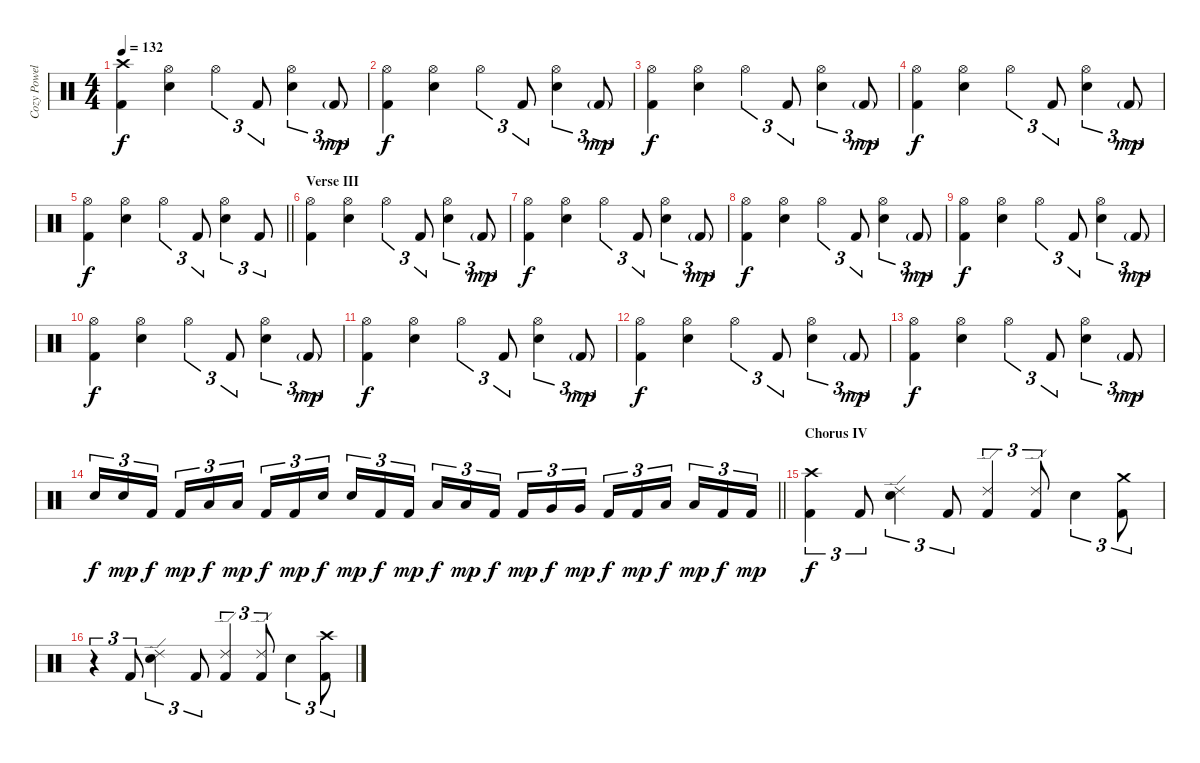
\track ("Cozy Powell" "Cozy Powel") {instrument percussion}
\staff {score}
\articulation defaults
\ts (4 4)
\tempo 132
\clef neutral
\ks c
("Crash high (hit)" "Kick (hit) 2").4{dy f} ("Hi-Hat (open)" "Snare (hit) 2").4 "Hi-Hat (open)".4{tu (3 2)} "Kick (hit) 2".8{tu (3 2)} ("Hi-Hat (open)" "Snare (hit) 2").4{tu (3 2)} "Kick (hit) 2"{g}.8{tu (3 2) dy mp} |
("Hi-Hat (open)" "Kick (hit) 2").4{dy f} ("Hi-Hat (open)" "Snare (hit) 2").4 "Hi-Hat (open)".4{tu (3 2)} "Kick (hit) 2".8{tu (3 2)} ("Hi-Hat (open)" "Snare (hit) 2").4{tu (3 2)} "Kick (hit) 2"{g}.8{tu (3 2) dy mp} |
("Hi-Hat (open)" "Kick (hit) 2").4{dy f} ("Hi-Hat (open)" "Snare (hit) 2").4 "Hi-Hat (open)".4{tu (3 2)} "Kick (hit) 2".8{tu (3 2)} ("Hi-Hat (open)" "Snare (hit) 2").4{tu (3 2)} "Kick (hit) 2"{g}.8{tu (3 2) dy mp} |
("Hi-Hat (open)" "Kick (hit) 2").4{dy f} ("Hi-Hat (open)" "Snare (hit) 2").4 "Hi-Hat (open)".4{tu (3 2)} "Kick (hit) 2".8{tu (3 2)} ("Hi-Hat (open)" "Snare (hit) 2").4{tu (3 2)} "Kick (hit) 2"{g}.8{tu (3 2) dy mp} |
\barLineRight lightlight
("Hi-Hat (open)" "Kick (hit) 2").4{dy f} ("Hi-Hat (open)" "Snare (hit) 2").4 "Hi-Hat (open)".4{tu (3 2)} "Kick (hit) 2".8{tu (3 2)} ("Hi-Hat (open)" "Snare (hit) 2").4{tu (3 2)} "Kick (hit) 2".8{tu (3 2)} |
\section ("" "Verse III")
("Hi-Hat (open)" "Kick (hit) 2").4 ("Hi-Hat (open)" "Snare (hit) 2").4 "Hi-Hat (open)".4{tu (3 2)} "Kick (hit) 2".8{tu (3 2)} ("Hi-Hat (open)" "Snare (hit) 2").4{tu (3 2)} "Kick (hit) 2"{g}.8{tu (3 2) dy mp} |
("Hi-Hat (open)" "Kick (hit) 2").4{dy f} ("Hi-Hat (open)" "Snare (hit) 2").4 "Hi-Hat (open)".4{tu (3 2)} "Kick (hit) 2".8{tu (3 2)} ("Hi-Hat (open)" "Snare (hit) 2").4{tu (3 2)} "Kick (hit) 2"{g}.8{tu (3 2) dy mp} |
("Hi-Hat (open)" "Kick (hit) 2").4{dy f} ("Hi-Hat (open)" "Snare (hit) 2").4 "Hi-Hat (open)".4{tu (3 2)} "Kick (hit) 2".8{tu (3 2)} ("Hi-Hat (open)" "Snare (hit) 2").4{tu (3 2)} "Kick (hit) 2"{g}.8{tu (3 2) dy mp} |
("Hi-Hat (open)" "Kick (hit) 2").4{dy f} ("Hi-Hat (open)" "Snare (hit) 2").4 "Hi-Hat (open)".4{tu (3 2)} "Kick (hit) 2".8{tu (3 2)} ("Hi-Hat (open)" "Snare (hit) 2").4{tu (3 2)} "Kick (hit) 2"{g}.8{tu (3 2) dy mp} |
("Hi-Hat (open)" "Kick (hit) 2").4{dy f} ("Hi-Hat (open)" "Snare (hit) 2").4 "Hi-Hat (open)".4{tu (3 2)} "Kick (hit) 2".8{tu (3 2)} ("Hi-Hat (open)" "Snare (hit) 2").4{tu (3 2)} "Kick (hit) 2"{g}.8{tu (3 2) dy mp} |
("Hi-Hat (open)" "Kick (hit) 2").4{dy f} ("Hi-Hat (open)" "Snare (hit) 2").4 "Hi-Hat (open)".4{tu (3 2)} "Kick (hit) 2".8{tu (3 2)} ("Hi-Hat (open)" "Snare (hit) 2").4{tu (3 2)} "Kick (hit) 2"{g}.8{tu (3 2) dy mp} |
("Hi-Hat (open)" "Kick (hit) 2").4{dy f} ("Hi-Hat (open)" "Snare (hit) 2").4 "Hi-Hat (open)".4{tu (3 2)} "Kick (hit) 2".8{tu (3 2)} ("Hi-Hat (open)" "Snare (hit) 2").4{tu (3 2)} "Kick (hit) 2"{g}.8{tu (3 2) dy mp} |
("Hi-Hat (open)" "Kick (hit) 2").4{dy f} ("Hi-Hat (open)" "Snare (hit) 2").4 "Hi-Hat (open)".4{tu (3 2)} "Kick (hit) 2".8{tu (3 2)} ("Hi-Hat (open)" "Snare (hit) 2").4{tu (3 2)} "Kick (hit) 2"{g}.8{tu (3 2) dy mp} |
\barLineRight lightlight "Snare (hit) 2".16{tu (3 2) dy f} "Snare (hit) 2".16{tu (3 2) dy mp} "Kick (hit) 2".16{tu (3 2) dy f beam splitsecondary} "Kick (hit) 2".16{tu (3 2) dy mp} "Low Tom (hit)".16{tu (3 2) dy f} "Low Tom (hit)".16{tu (3 2) dy mp} "Kick (hit) 2".16{tu (3 2) dy f} "Kick (hit) 2".16{tu (3 2) dy mp} "Snare (hit) 2".16{tu (3 2) dy f beam splitsecondary} "Snare (hit) 2".16{tu (3 2) dy mp} "Kick (hit) 2".16{tu (3 2) dy f} "Kick (hit) 2".16{tu (3 2) dy mp} "Low Tom (hit)".16{tu (3 2) dy f} "Low Tom (hit)".16{tu (3 2) dy mp} "Kick (hit) 2".16{tu (3 2) dy f beam splitsecondary} "Kick (hit) 2".16{tu (3 2) dy mp} "Very Low Tom (hit)".16{tu (3 2) dy f} "Very Low Tom (hit)".16{tu (3 2) dy mp} "Kick (hit) 2".16{tu (3 2) dy f} "Kick (hit) 2".16{tu (3 2) dy mp} "Low Floor Tom (hit)".16{tu (3 2) dy f beam splitsecondary} "Low Floor Tom (hit)".16{tu (3 2) dy mp} "Kick (hit) 2".16{tu (3 2) dy f} "Kick (hit) 2".16{tu (3 2) dy mp}
|
\section ("" "Chorus IV")
("Crash high (hit)" "Kick (hit) 2").4{tu (3 2) dy f} "Kick (hit) 2".8{tu (3 2)} ("Ride (edge) 2" "Snare (hit) 2").4{tu (3 2)} "Kick (hit) 2".8{tu (3 2)} ("Ride (edge) 2" "Kick (hit) 2").4{tu (3 2)} ("Ride (edge) 2" "Kick (hit) 2").8{tu (3 2)} "Snare (hit) 2".4{tu (3 2)} ("Crash medium (hit)" "Kick (hit) 2").8{tu (3 2)} |
r.4{tu (3 2)} "Kick (hit) 2".8{tu (3 2)} ("Ride (edge) 2" "Snare (hit) 2").4{tu (3 2)} "Kick (hit) 2".8{tu (3 2)} ("Ride (edge) 2" "Kick (hit) 2").4{tu (3 2)} ("Ride (edge) 2" "Kick (hit) 2").8{tu (3 2)} "Snare (hit) 2".4{tu (3 2)} ("Crash high (hit)" "Kick (hit) 2").8{tu (3 2)}
